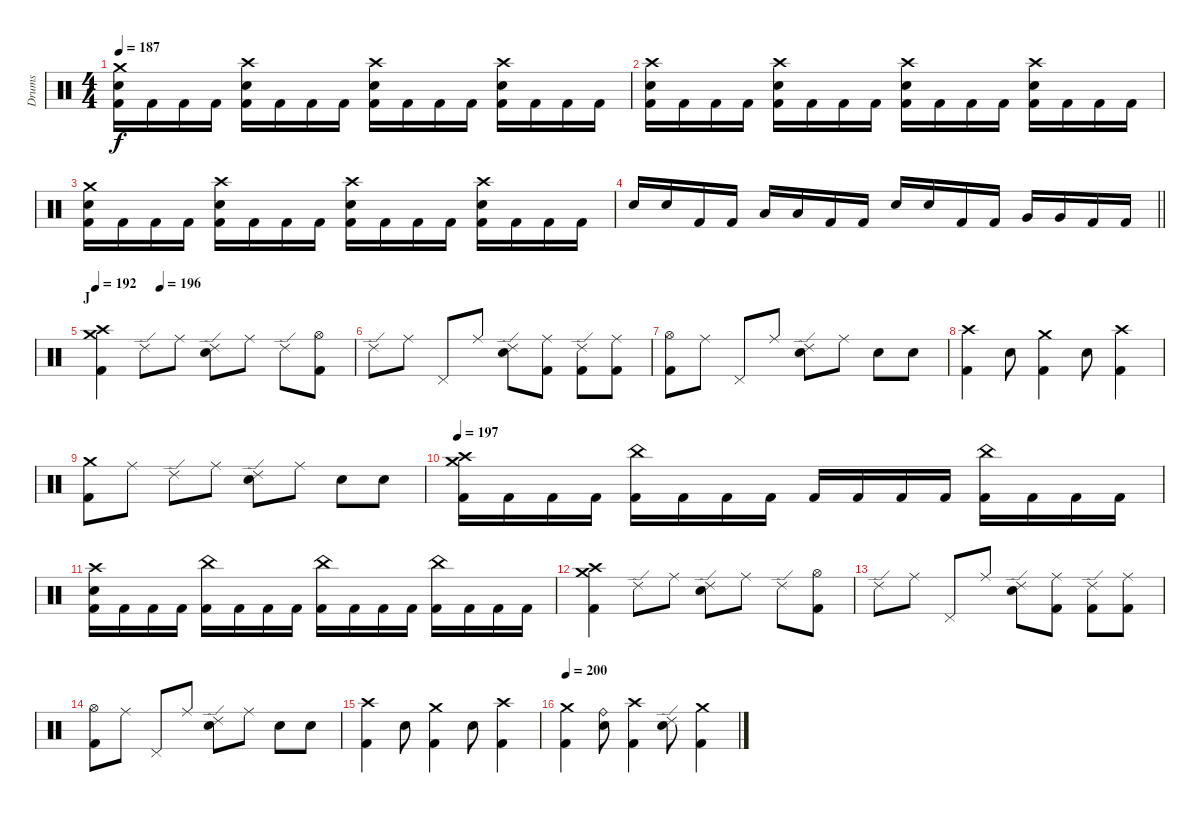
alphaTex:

\track ("Drums" "Drums") {instrument percussion}
\staff {score}
\articulation defaults
\ts (4 4)
\tempo 187
\clef neutral
\ks c
("Crash medium (hit)" "Electric Snare (hit)" "Kick (hit) 2").16{dy f} "Kick (hit) 2".16 "Kick (hit) 2".16 "Kick (hit) 2".16 ("Crash high (hit)" "Electric Snare (hit)" "Kick (hit) 2").16 "Kick (hit) 2".16 "Kick (hit) 2".16 "Kick (hit) 2".16 ("Crash high (hit)" "Electric Snare (hit)" "Kick (hit) 2").16 "Kick (hit) 2".16 "Kick (hit) 2".16 "Kick (hit) 2".16 ("Crash high (hit)" "Electric Snare (hit)" "Kick (hit) 2").16 "Kick (hit) 2".16 "Kick (hit) 2".16 "Kick (hit) 2".16 |
("Crash high (hit)" "Electric Snare (hit)" "Kick (hit) 2").16 "Kick (hit) 2".16 "Kick (hit) 2".16 "Kick (hit) 2".16 ("Crash high (hit)" "Electric Snare (hit)" "Kick (hit) 2").16 "Kick (hit) 2".16 "Kick (hit) 2".16 "Kick (hit) 2".16 ("Crash high (hit)" "Electric Snare (hit)" "Kick (hit) 2").16 "Kick (hit) 2".16 "Kick (hit) 2".16 "Kick (hit) 2".16 ("Crash high (hit)" "Electric Snare (hit)" "Kick (hit) 2").16 "Kick (hit) 2".16 "Kick (hit) 2".16 "Kick (hit) 2".16 |
("Crash medium (hit)" "Electric Snare (hit)" "Kick (hit) 2").16 "Kick (hit) 2".16 "Kick (hit) 2".16 "Kick (hit) 2".16 ("Crash high (hit)" "Electric Snare (hit)" "Kick (hit) 2").16 "Kick (hit) 2".16 "Kick (hit) 2".16 "Kick (hit) 2".16 ("Crash high (hit)" "Electric Snare (hit)" "Kick (hit) 2").16 "Kick (hit) 2".16 "Kick (hit) 2".16 "Kick (hit) 2".16 ("Crash high (hit)" "Electric Snare (hit)" "Kick (hit) 2").16 "Kick (hit) 2".16 "Kick (hit) 2".16 "Kick (hit) 2".16 |
\barLineRight lightlight "Electric Snare (hit)".16 "Electric Snare (hit)".16 "Kick (hit) 2".16 "Kick (hit) 2".16 "Low Tom (hit)".16 "Low Tom (hit)".16 "Kick (hit) 2".16 "Kick (hit) 2".16 "Electric Snare (hit)".16 "Electric Snare (hit)".16 "Kick (hit) 2".16 "Kick (hit) 2".16 "Very Low Tom (hit)".16 "Very Low Tom (hit)".16 "Kick (hit) 2".16 "Kick (hit) 2".16
|
\section ("" "J")
\tempo 192
\tempo (196 0.25)
("Crash medium (hit)" "Crash high (hit)" "Kick (hit) 2").4 "Ride (edge) 2".8 "Ride (middle)".8 ("Ride (edge) 2" "Electric Snare (hit)").8 "Ride (middle)".8 "Ride (edge) 2".8 ("Hi-Hat (open)" "Kick (hit) 2").8 |
"Ride (edge) 2".8 "Ride (middle)".8 "Pedal Hi-Hat (hit)".8 "Ride (middle)".8 ("Ride (edge) 2" "Electric Snare (hit)").8 ("Ride (middle)" "Kick (hit) 2").8 ("Ride (edge) 2" "Kick (hit) 2").8 ("Ride (middle)" "Kick (hit) 2").8 |
("Hi-Hat (open)" "Kick (hit) 2").8 "Ride (middle)".8 "Pedal Hi-Hat (hit)".8 "Ride (middle)".8 ("Ride (edge) 2" "Electric Snare (hit)").8 "Ride (middle)".8 "Electric Snare (hit)".8 "Electric Snare (hit)".8 |
("Crash high (hit)" "Kick (hit) 2").4 "Electric Snare (hit)".8 ("Crash medium (hit)" "Kick (hit) 2").4 "Electric Snare (hit)".8 ("Crash high (hit)" "Kick (hit) 2").4 |
("Crash medium (hit)" "Kick (hit) 2").8 "Ride (middle)".8 "Ride (edge) 2".8 "Ride (middle)".8 ("Ride (edge) 2" "Electric Snare (hit)").8 "Ride (middle)".8 "Electric Snare (hit)".8 "Electric Snare (hit)".8 |
\tempo 197
("Crash medium (hit)" "Crash high (hit)" "Kick (hit) 2").16 "Kick (hit) 2".16 "Kick (hit) 2".16 "Kick (hit) 2".16 ("China (hit)" "Kick (hit) 2").16 "Kick (hit) 2".16 "Kick (hit) 2".16 "Kick (hit) 2".16 "Kick (hit) 2".16 "Kick (hit) 2".16 "Kick (hit) 2".16 "Kick (hit) 2".16 ("China (hit)" "Kick (hit) 2").16 "Kick (hit) 2".16 "Kick (hit) 2".16 "Kick (hit) 2".16 |
("Crash high (hit)" "Electric Snare (hit)" "Kick (hit) 2").16 "Kick (hit) 2".16 "Kick (hit) 2".16 "Kick (hit) 2".16 ("China (hit)" "Kick (hit) 2").16 "Kick (hit) 2".16 "Kick (hit) 2".16 "Kick (hit) 2".16 ("China (hit)" "Kick (hit) 2").16 "Kick (hit) 2".16 "Kick (hit) 2".16 "Kick (hit) 2".16 ("China (hit)" "Kick (hit) 2").16 "Kick (hit) 2".16 "Kick (hit) 2".16 "Kick (hit) 2".16 |
("Crash medium (hit)" "Crash high (hit)" "Kick (hit) 2").4 "Ride (edge) 2".8 "Ride (middle)".8 ("Ride (edge) 2" "Electric Snare (hit)").8 "Ride (middle)".8 "Ride (edge) 2".8 ("Hi-Hat (open)" "Kick (hit) 2").8 |
"Ride (edge) 2".8 "Ride (middle)".8 "Pedal Hi-Hat (hit)".8 "Ride (middle)".8 ("Ride (edge) 2" "Electric Snare (hit)").8 ("Ride (middle)" "Kick (hit) 2").8 ("Ride (edge) 2" "Kick (hit) 2").8 ("Ride (middle)" "Kick (hit) 2").8 |
("Hi-Hat (open)" "Kick (hit) 2").8 "Ride (middle)".8 "Pedal Hi-Hat (hit)".8 "Ride (middle)".8 ("Ride (edge) 2" "Electric Snare (hit)").8 "Ride (middle)".8 "Electric Snare (hit)".8 "Electric Snare (hit)".8 |
("Crash high (hit)" "Kick (hit) 2").4 "Electric Snare (hit)".8 ("Crash medium (hit)" "Kick (hit) 2").4 "Electric Snare (hit)".8 ("Crash high (hit)" "Kick (hit) 2").4 |
\tempo 200
("Crash medium (hit)" "Kick (hit) 2").4 ("Ride (bell)" "Electric Snare (hit)").8 ("Crash high (hit)" "Kick (hit) 2").4 ("Ride (edge) 2" "Electric Snare (hit)").8 ("Crash medium (hit)" "Kick (hit) 2").4
